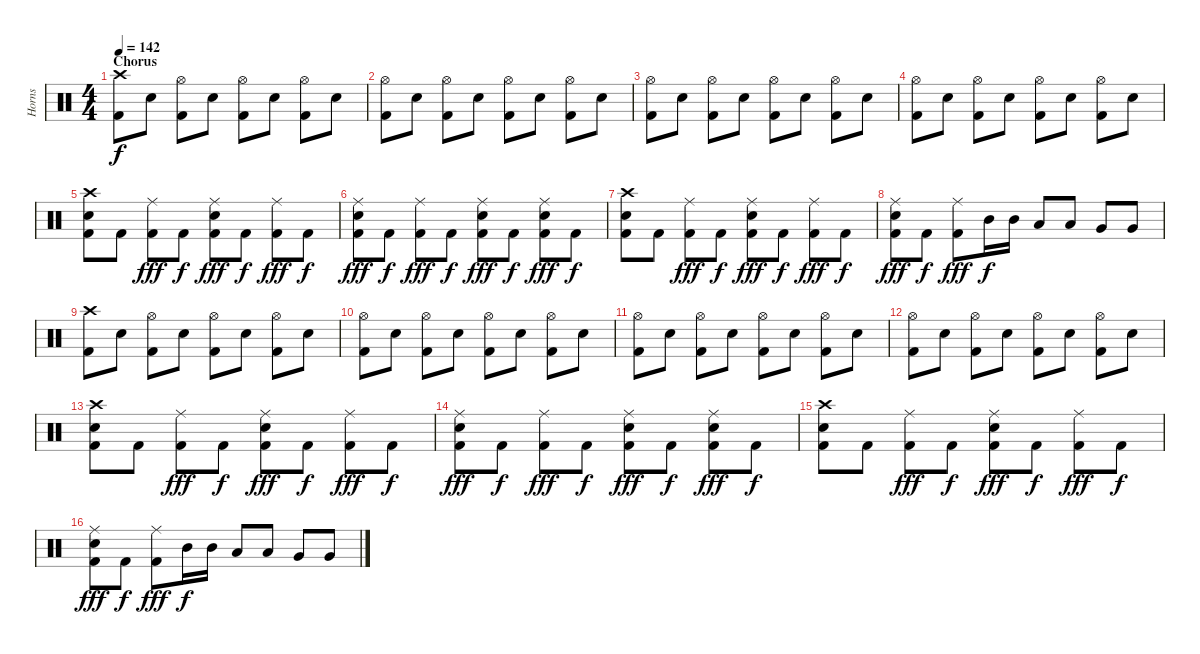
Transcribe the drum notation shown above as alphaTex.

\track ("Horns" "Horns") {instrument percussion}
\staff {score}
\articulation defaults
\ts (4 4)
\section ("" "Chorus")
\tempo 142
\clef neutral
\ks c
("Crash high (hit)" "Kick (hit) 2").8{dy f} "Snare (hit) 2".8 ("Hi-Hat (open)" "Kick (hit) 2").8 "Snare (hit) 2".8 ("Hi-Hat (open)" "Kick (hit) 2").8 "Snare (hit) 2".8 ("Hi-Hat (open)" "Kick (hit) 2").8 "Snare (hit) 2".8 |
("Hi-Hat (open)" "Kick (hit) 2").8 "Snare (hit) 2".8 ("Hi-Hat (open)" "Kick (hit) 2").8 "Snare (hit) 2".8 ("Hi-Hat (open)" "Kick (hit) 2").8 "Snare (hit) 2".8 ("Hi-Hat (open)" "Kick (hit) 2").8 "Snare (hit) 2".8 |
("Hi-Hat (open)" "Kick (hit) 2").8 "Snare (hit) 2".8 ("Hi-Hat (open)" "Kick (hit) 2").8 "Snare (hit) 2".8 ("Hi-Hat (open)" "Kick (hit) 2").8 "Snare (hit) 2".8 ("Hi-Hat (open)" "Kick (hit) 2").8 "Snare (hit) 2".8 |
("Hi-Hat (open)" "Kick (hit) 2").8 "Snare (hit) 2".8 ("Hi-Hat (open)" "Kick (hit) 2").8 "Snare (hit) 2".8 ("Hi-Hat (open)" "Kick (hit) 2").8 "Snare (hit) 2".8 ("Hi-Hat (open)" "Kick (hit) 2").8 "Snare (hit) 2".8 |
("Crash high (hit)" "Snare (hit) 2" "Kick (hit) 2").8 "Kick (hit) 2".8 ("Ride (middle)" "Kick (hit) 2").8{dy fff} "Kick (hit) 2".8{dy f} ("Ride (middle)" "Snare (hit) 2" "Kick (hit) 2").8{dy fff} "Kick (hit) 2".8{dy f} ("Ride (middle)" "Kick (hit) 2").8{dy fff} "Kick (hit) 2".8{dy f} |
("Ride (middle)" "Snare (hit) 2" "Kick (hit) 2").8{dy fff} "Kick (hit) 2".8{dy f} ("Ride (middle)" "Kick (hit) 2").8{dy fff} "Kick (hit) 2".8{dy f} ("Ride (middle)" "Snare (hit) 2" "Kick (hit) 2").8{dy fff} "Kick (hit) 2".8{dy f} ("Ride (middle)" "Snare (hit) 2" "Kick (hit) 2").8{dy fff} "Kick (hit) 2".8{dy f} |
("Crash high (hit)" "Snare (hit) 2" "Kick (hit) 2").8 "Kick (hit) 2".8 ("Ride (middle)" "Kick (hit) 2").8{dy fff} "Kick (hit) 2".8{dy f} ("Ride (middle)" "Snare (hit) 2" "Kick (hit) 2").8{dy fff} "Kick (hit) 2".8{dy f} ("Ride (middle)" "Kick (hit) 2").8{dy fff} "Kick (hit) 2".8{dy f} |
("Ride (middle)" "Snare (hit) 2" "Kick (hit) 2").8{dy fff} "Kick (hit) 2".8{dy f} ("Ride (middle)" "Kick (hit) 2").8{dy fff} "Mid Tom (hit)".16{dy f} "Mid Tom (hit)".16 "Low Tom (hit)".8 "Low Tom (hit)".8 "Very Low Tom (hit)".8 "Very Low Tom (hit)".8 |
("Crash high (hit)" "Kick (hit) 2").8 "Snare (hit) 2".8 ("Hi-Hat (open)" "Kick (hit) 2").8 "Snare (hit) 2".8 ("Hi-Hat (open)" "Kick (hit) 2").8 "Snare (hit) 2".8 ("Hi-Hat (open)" "Kick (hit) 2").8 "Snare (hit) 2".8 |
("Hi-Hat (open)" "Kick (hit) 2").8 "Snare (hit) 2".8 ("Hi-Hat (open)" "Kick (hit) 2").8 "Snare (hit) 2".8 ("Hi-Hat (open)" "Kick (hit) 2").8 "Snare (hit) 2".8 ("Hi-Hat (open)" "Kick (hit) 2").8 "Snare (hit) 2".8 |
("Hi-Hat (open)" "Kick (hit) 2").8 "Snare (hit) 2".8 ("Hi-Hat (open)" "Kick (hit) 2").8 "Snare (hit) 2".8 ("Hi-Hat (open)" "Kick (hit) 2").8 "Snare (hit) 2".8 ("Hi-Hat (open)" "Kick (hit) 2").8 "Snare (hit) 2".8 |
("Hi-Hat (open)" "Kick (hit) 2").8 "Snare (hit) 2".8 ("Hi-Hat (open)" "Kick (hit) 2").8 "Snare (hit) 2".8 ("Hi-Hat (open)" "Kick (hit) 2").8 "Snare (hit) 2".8 ("Hi-Hat (open)" "Kick (hit) 2").8 "Snare (hit) 2".8 |
("Crash high (hit)" "Snare (hit) 2" "Kick (hit) 2").8 "Kick (hit) 2".8 ("Ride (middle)" "Kick (hit) 2").8{dy fff} "Kick (hit) 2".8{dy f} ("Ride (middle)" "Snare (hit) 2" "Kick (hit) 2").8{dy fff} "Kick (hit) 2".8{dy f} ("Ride (middle)" "Kick (hit) 2").8{dy fff} "Kick (hit) 2".8{dy f} |
("Ride (middle)" "Snare (hit) 2" "Kick (hit) 2").8{dy fff} "Kick (hit) 2".8{dy f} ("Ride (middle)" "Kick (hit) 2").8{dy fff} "Kick (hit) 2".8{dy f} ("Ride (middle)" "Snare (hit) 2" "Kick (hit) 2").8{dy fff} "Kick (hit) 2".8{dy f} ("Ride (middle)" "Snare (hit) 2" "Kick (hit) 2").8{dy fff} "Kick (hit) 2".8{dy f} |
("Crash high (hit)" "Snare (hit) 2" "Kick (hit) 2").8 "Kick (hit) 2".8 ("Ride (middle)" "Kick (hit) 2").8{dy fff} "Kick (hit) 2".8{dy f} ("Ride (middle)" "Snare (hit) 2" "Kick (hit) 2").8{dy fff} "Kick (hit) 2".8{dy f} ("Ride (middle)" "Kick (hit) 2").8{dy fff} "Kick (hit) 2".8{dy f} |
("Ride (middle)" "Snare (hit) 2" "Kick (hit) 2").8{dy fff} "Kick (hit) 2".8{dy f} ("Ride (middle)" "Kick (hit) 2").8{dy fff} "Mid Tom (hit)".16{dy f} "Mid Tom (hit)".16 "Low Tom (hit)".8 "Low Tom (hit)".8 "Very Low Tom (hit)".8 "Very Low Tom (hit)".8
